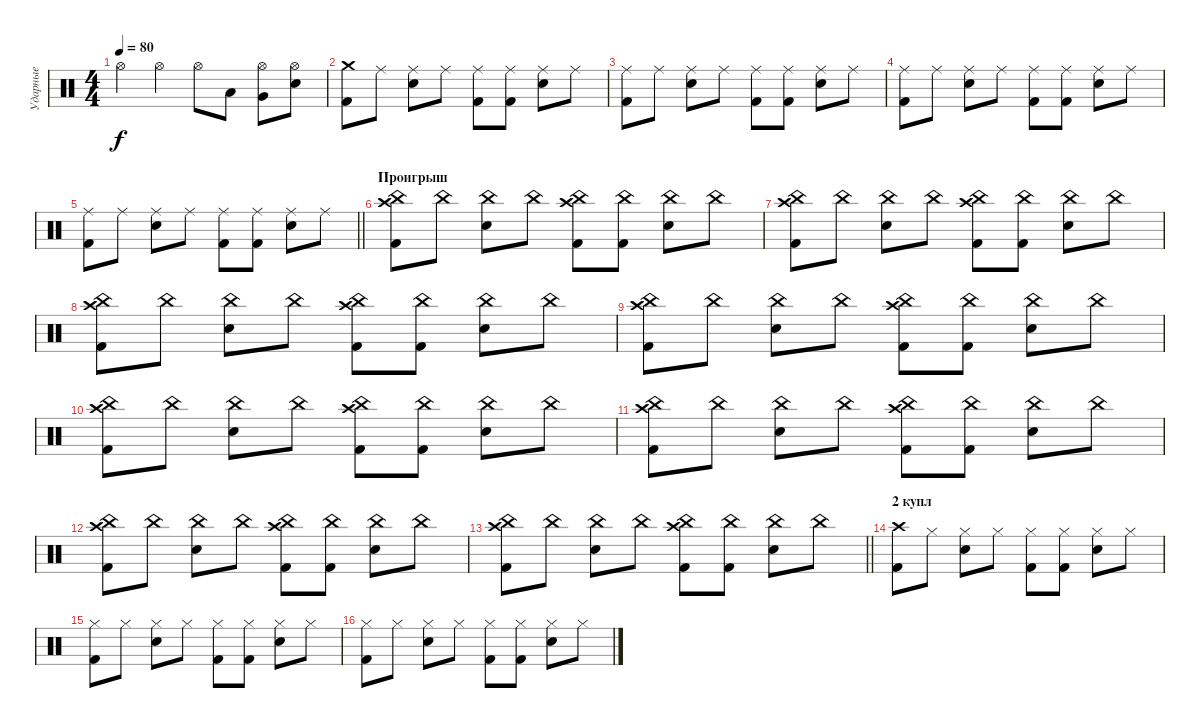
\track ("Ударные" "Ударные") {instrument percussion}
\staff {score}
\articulation defaults
\ts (4 4)
\tempo 80
\clef neutral
\ks c "Hi-Hat (open)".4{dy f} "Hi-Hat (open)".4 "Hi-Hat (open)".8 "Low Tom (hit)".8
("Hi-Hat (open)" "Very Low Tom (hit)").8 ("Hi-Hat (open)" "Electric Snare (hit)").8 |
("Crash medium (hit)" "Kick (hit) 2").8 "Ride (middle)".8 ("Ride (middle)" "Electric Snare (hit)").8 "Ride (middle)".8 ("Ride (middle)" "Kick (hit) 2").8 ("Ride (middle)" "Kick (hit) 2").8 ("Ride (middle)" "Electric Snare (hit)").8 "Ride (middle)".8 |
("Ride (middle)" "Kick (hit) 2").8 "Ride (middle)".8 ("Ride (middle)" "Electric Snare (hit)").8 "Ride (middle)".8 ("Ride (middle)" "Kick (hit) 2").8 ("Ride (middle)" "Kick (hit) 2").8 ("Ride (middle)" "Electric Snare (hit)").8 "Ride (middle)".8 |
("Ride (middle)" "Kick (hit) 2").8 "Ride (middle)".8 ("Ride (middle)" "Electric Snare (hit)").8 "Ride (middle)".8 ("Ride (middle)" "Kick (hit) 2").8 ("Ride (middle)" "Kick (hit) 2").8 ("Ride (middle)" "Electric Snare (hit)").8 "Ride (middle)".8 |
\barLineRight lightlight
("Ride (middle)" "Kick (hit) 2").8 "Ride (middle)".8 ("Ride (middle)" "Electric Snare (hit)").8 "Ride (middle)".8 ("Ride (middle)" "Kick (hit) 2").8 ("Ride (middle)" "Kick (hit) 2").8 ("Ride (middle)" "Electric Snare (hit)").8 "Ride (middle)".8 |
\section ("" "Проигрыш")
("Crash high (hit)" "China (hit)" "Kick (hit) 2").8 "China (hit)".8 ("China (hit)" "Electric Snare (hit)").8 "China (hit)".8 ("Crash high (hit)" "China (hit)" "Kick (hit) 2").8 ("China (hit)" "Kick (hit) 2").8 ("China (hit)" "Electric Snare (hit)").8 "China (hit)".8 |
("Crash high (hit)" "China (hit)" "Kick (hit) 2").8 "China (hit)".8 ("China (hit)" "Electric Snare (hit)").8 "China (hit)".8 ("Crash high (hit)" "China (hit)" "Kick (hit) 2").8 ("China (hit)" "Kick (hit) 2").8 ("China (hit)" "Electric Snare (hit)").8 "China (hit)".8 |
("Crash high (hit)" "China (hit)" "Kick (hit) 2").8 "China (hit)".8 ("China (hit)" "Electric Snare (hit)").8 "China (hit)".8 ("Crash high (hit)" "China (hit)" "Kick (hit) 2").8 ("China (hit)" "Kick (hit) 2").8 ("China (hit)" "Electric Snare (hit)").8 "China (hit)".8 |
("Crash high (hit)" "China (hit)" "Kick (hit) 2").8 "China (hit)".8 ("China (hit)" "Electric Snare (hit)").8 "China (hit)".8 ("Crash high (hit)" "China (hit)" "Kick (hit) 2").8 ("China (hit)" "Kick (hit) 2").8 ("China (hit)" "Electric Snare (hit)").8 "China (hit)".8 |
("Crash high (hit)" "China (hit)" "Kick (hit) 2").8 "China (hit)".8 ("China (hit)" "Electric Snare (hit)").8 "China (hit)".8 ("Crash high (hit)" "China (hit)" "Kick (hit) 2").8 ("China (hit)" "Kick (hit) 2").8 ("China (hit)" "Electric Snare (hit)").8 "China (hit)".8 |
("Crash high (hit)" "China (hit)" "Kick (hit) 2").8 "China (hit)".8 ("China (hit)" "Electric Snare (hit)").8 "China (hit)".8 ("Crash high (hit)" "China (hit)" "Kick (hit) 2").8 ("China (hit)" "Kick (hit) 2").8 ("China (hit)" "Electric Snare (hit)").8 "China (hit)".8 |
("Crash high (hit)" "China (hit)" "Kick (hit) 2").8 "China (hit)".8 ("China (hit)" "Electric Snare (hit)").8 "China (hit)".8 ("Crash high (hit)" "China (hit)" "Kick (hit) 2").8 ("China (hit)" "Kick (hit) 2").8 ("China (hit)" "Electric Snare (hit)").8 "China (hit)".8 |
\barLineRight lightlight
("Crash high (hit)" "China (hit)" "Kick (hit) 2").8 "China (hit)".8 ("China (hit)" "Electric Snare (hit)").8 "China (hit)".8 ("Crash high (hit)" "China (hit)" "Kick (hit) 2").8 ("China (hit)" "Kick (hit) 2").8 ("China (hit)" "Electric Snare (hit)").8 "China (hit)".8 |
\section ("" "2 купл")
("Crash high (hit)" "Kick (hit) 2").8 "Hi-Hat (closed)".8 ("Hi-Hat (closed)" "Electric Snare (hit)").8 "Hi-Hat (closed)".8 ("Hi-Hat (closed)" "Kick (hit) 2").8 ("Hi-Hat (closed)" "Kick (hit) 2").8 ("Hi-Hat (closed)" "Electric Snare (hit)").8 "Hi-Hat (closed)".8 |
("Hi-Hat (closed)" "Kick (hit) 2").8 "Hi-Hat (closed)".8 ("Hi-Hat (closed)" "Electric Snare (hit)").8 "Hi-Hat (closed)".8 ("Hi-Hat (closed)" "Kick (hit) 2").8 ("Hi-Hat (closed)" "Kick (hit) 2").8 ("Hi-Hat (closed)" "Electric Snare (hit)").8 "Hi-Hat (closed)".8 |
("Hi-Hat (closed)" "Kick (hit) 2").8 "Hi-Hat (closed)".8 ("Hi-Hat (closed)" "Electric Snare (hit)").8 "Hi-Hat (closed)".8 ("Hi-Hat (closed)" "Kick (hit) 2").8 ("Hi-Hat (closed)" "Kick (hit) 2").8 ("Hi-Hat (closed)" "Electric Snare (hit)").8 "Hi-Hat (closed)".8
